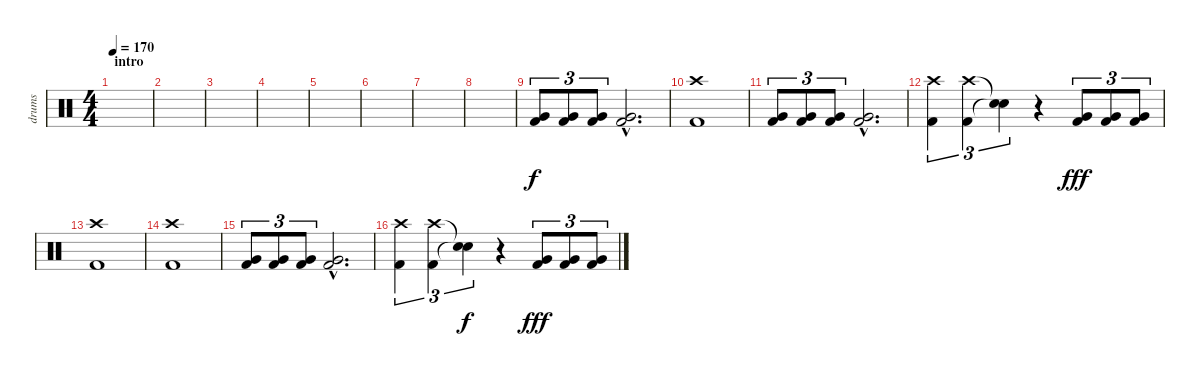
\track ("drums" "drums") {instrument percussion}
\staff {score}
\articulation defaults
\ts (4 4)
\section ("" "intro")
\tempo 170
\clef neutral
\ks c
|
|
|
|
|
|
|
|
("Very Low Tom (hit)" "Kick (hit) 2").8{tu (3 2)} ("Very Low Tom (hit)" "Kick (hit) 2").8{tu (3 2)} ("Very Low Tom (hit)" "Kick (hit) 2").8{tu (3 2)} ("Very Low Tom (hit)"{hac} "Kick (hit) 2"{hac}).2{d} |
("Crash high (hit)" "Kick (hit) 2").1 |
("Very Low Tom (hit)" "Kick (hit) 2").8{tu (3 2)} ("Very Low Tom (hit)" "Kick (hit) 2").8{tu (3 2)} ("Very Low Tom (hit)" "Kick (hit) 2").8{tu (3 2)} ("Very Low Tom (hit)"{hac} "Kick (hit) 2"{hac}).2{d} |
("Crash high (hit)" "Kick (hit) 2").4{tu (3 2)} ("Crash high (hit)" "Kick (hit) 2").4{tu (3 2)} ("Snare (hit)"{t} "Snare (hit)"{t}).4{tu (3 2) dy f} r.4 ("Very Low Tom (hit)" "Kick (hit) 2").8{tu (3 2) dy fff} ("Very Low Tom (hit)" "Kick (hit) 2").8{tu (3 2)} ("Very Low Tom (hit)" "Kick (hit) 2").8{tu (3 2)} |
("Crash high (hit)" "Kick (hit) 2").1 |
("Crash high (hit)" "Kick (hit) 2").1 |
("Very Low Tom (hit)" "Kick (hit) 2").8{tu (3 2)} ("Very Low Tom (hit)" "Kick (hit) 2").8{tu (3 2)} ("Very Low Tom (hit)" "Kick (hit) 2").8{tu (3 2)} ("Very Low Tom (hit)"{hac} "Kick (hit) 2"{hac}).2{d} |
("Crash high (hit)" "Kick (hit) 2").4{tu (3 2)} ("Crash high (hit)" "Kick (hit) 2").4{tu (3 2)} ("Snare (hit)"{t} "Snare (hit)"{t}).4{tu (3 2) dy f} r.4 ("Very Low Tom (hit)" "Kick (hit) 2").8{tu (3 2) dy fff} ("Very Low Tom (hit)" "Kick (hit) 2").8{tu (3 2)} ("Very Low Tom (hit)" "Kick (hit) 2").8{tu (3 2)}
